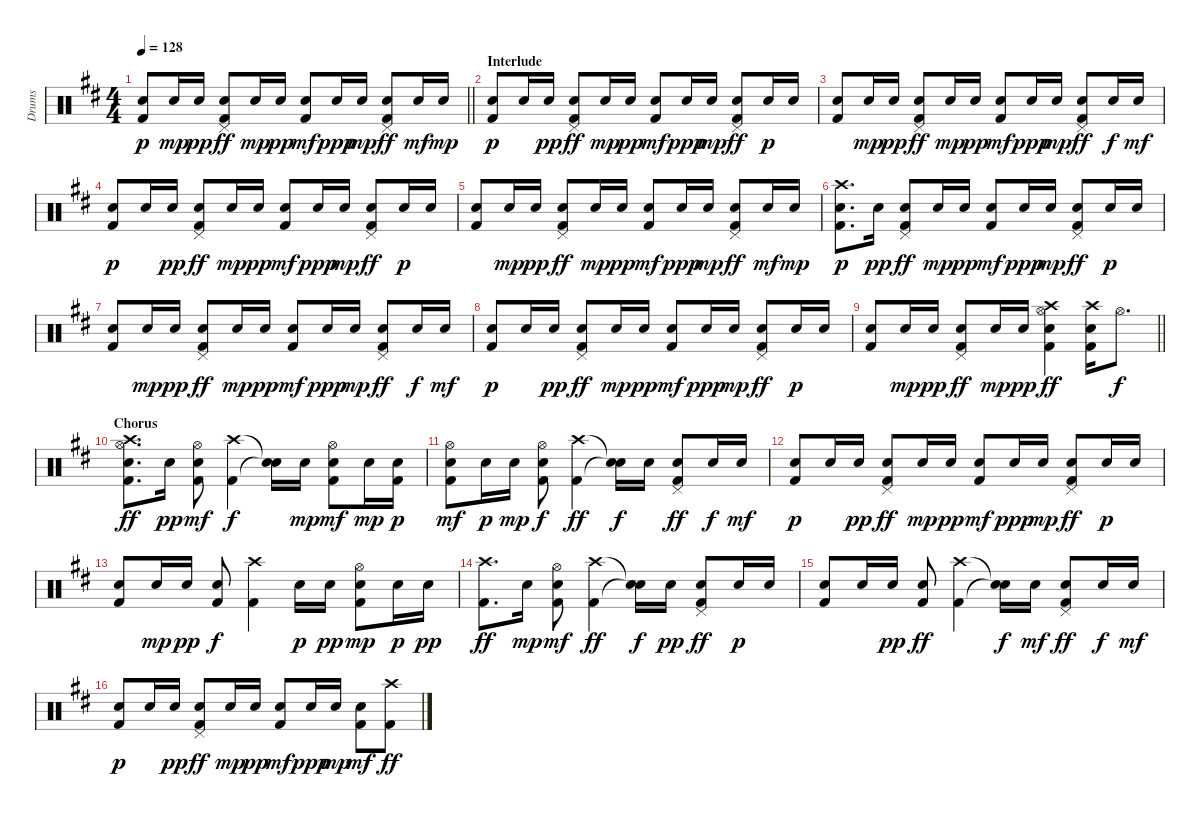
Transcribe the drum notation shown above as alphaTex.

\track ("Drums" "Drums") {instrument percussion}
\staff {score}
\articulation defaults
\ts (4 4)
\tempo 128
\clef neutral
\barLineRight lightlight
\ks d
("Kick (hit) 2" "Snare (hit) 2").8{dy p} "Snare (hit) 2".16{dy mp} "Snare (hit) 2".16{dy pp} ("Kick (hit) 2" "Snare (hit) 2" "Pedal Hi-Hat (hit)").8{dy ff} "Snare (hit) 2".16{dy mp} "Snare (hit) 2".16{dy pp} ("Kick (hit) 2" "Snare (hit) 2").8{dy mf} "Snare (hit) 2".16{dy ppp} "Snare (hit) 2".16{dy mp} ("Kick (hit) 2" "Snare (hit) 2" "Pedal Hi-Hat (hit)").8{dy ff} "Snare (hit) 2".16{dy mf} "Snare (hit) 2".16{dy mp} |
\section ("" "Interlude")
("Kick (hit) 2" "Snare (hit) 2").8{dy p} "Snare (hit) 2".16 "Snare (hit) 2".16{dy pp} ("Kick (hit) 2" "Snare (hit) 2" "Pedal Hi-Hat (hit)").8{dy ff} "Snare (hit) 2".16{dy mp} "Snare (hit) 2".16{dy pp} ("Kick (hit) 2" "Snare (hit) 2").8{dy mf} "Snare (hit) 2".16{dy ppp} "Snare (hit) 2".16{dy mp} ("Kick (hit) 2" "Snare (hit) 2" "Pedal Hi-Hat (hit)").8{dy ff} "Snare (hit) 2".16{dy p} "Snare (hit) 2".16 |
("Kick (hit) 2" "Snare (hit) 2").8 "Snare (hit) 2".16{dy mp} "Snare (hit) 2".16{dy pp} ("Kick (hit) 2" "Snare (hit) 2" "Pedal Hi-Hat (hit)").8{dy ff} "Snare (hit) 2".16{dy mp} "Snare (hit) 2".16{dy pp} ("Kick (hit) 2" "Snare (hit) 2").8{dy mf} "Snare (hit) 2".16{dy ppp} "Snare (hit) 2".16{dy mp} ("Kick (hit) 2" "Snare (hit) 2" "Pedal Hi-Hat (hit)").8{dy ff} "Snare (hit) 2".16{dy f} "Snare (hit) 2".16{dy mf} |
("Kick (hit) 2" "Snare (hit) 2").8{dy p} "Snare (hit) 2".16 "Snare (hit) 2".16{dy pp} ("Kick (hit) 2" "Snare (hit) 2" "Pedal Hi-Hat (hit)").8{dy ff} "Snare (hit) 2".16{dy mp} "Snare (hit) 2".16{dy pp} ("Kick (hit) 2" "Snare (hit) 2").8{dy mf} "Snare (hit) 2".16{dy ppp} "Snare (hit) 2".16{dy mp} ("Kick (hit) 2" "Snare (hit) 2" "Pedal Hi-Hat (hit)").8{dy ff} "Snare (hit) 2".16{dy p} "Snare (hit) 2".16 |
("Kick (hit) 2" "Snare (hit) 2").8 "Snare (hit) 2".16{dy mp} "Snare (hit) 2".16{dy pp} ("Kick (hit) 2" "Snare (hit) 2" "Pedal Hi-Hat (hit)").8{dy ff} "Snare (hit) 2".16{dy mp} "Snare (hit) 2".16{dy pp} ("Kick (hit) 2" "Snare (hit) 2").8{dy mf} "Snare (hit) 2".16{dy ppp} "Snare (hit) 2".16{dy mp} ("Kick (hit) 2" "Snare (hit) 2" "Pedal Hi-Hat (hit)").8{dy ff} "Snare (hit) 2".16{dy mf} "Snare (hit) 2".16{dy mp} |
("Kick (hit) 2" "Snare (hit) 2" "Crash high (hit)").8{d dy p} "Snare (hit) 2".16{dy pp} ("Kick (hit) 2" "Snare (hit) 2" "Pedal Hi-Hat (hit)").8{dy ff} "Snare (hit) 2".16{dy mp} "Snare (hit) 2".16{dy pp} ("Kick (hit) 2" "Snare (hit) 2").8{dy mf} "Snare (hit) 2".16{dy ppp} "Snare (hit) 2".16{dy mp} ("Kick (hit) 2" "Snare (hit) 2" "Pedal Hi-Hat (hit)").8{dy ff} "Snare (hit) 2".16{dy p} "Snare (hit) 2".16 |
("Kick (hit) 2" "Snare (hit) 2").8 "Snare (hit) 2".16{dy mp} "Snare (hit) 2".16{dy pp} ("Kick (hit) 2" "Snare (hit) 2" "Pedal Hi-Hat (hit)").8{dy ff} "Snare (hit) 2".16{dy mp} "Snare (hit) 2".16{dy pp} ("Kick (hit) 2" "Snare (hit) 2").8{dy mf} "Snare (hit) 2".16{dy ppp} "Snare (hit) 2".16{dy mp} ("Kick (hit) 2" "Snare (hit) 2" "Pedal Hi-Hat (hit)").8{dy ff} "Snare (hit) 2".16{dy f} "Snare (hit) 2".16{dy mf} |
("Kick (hit) 2" "Snare (hit) 2").8{dy p} "Snare (hit) 2".16 "Snare (hit) 2".16{dy pp} ("Kick (hit) 2" "Snare (hit) 2" "Pedal Hi-Hat (hit)").8{dy ff} "Snare (hit) 2".16{dy mp} "Snare (hit) 2".16{dy pp} ("Kick (hit) 2" "Snare (hit) 2").8{dy mf} "Snare (hit) 2".16{dy ppp} "Snare (hit) 2".16{dy mp} ("Kick (hit) 2" "Snare (hit) 2" "Pedal Hi-Hat (hit)").8{dy ff} "Snare (hit) 2".16{dy p} "Snare (hit) 2".16 |
\barLineRight lightlight
("Kick (hit) 2" "Snare (hit) 2").8 "Snare (hit) 2".16{dy mp} "Snare (hit) 2".16{dy pp} ("Kick (hit) 2" "Snare (hit) 2" "Pedal Hi-Hat (hit)").8{dy ff} "Snare (hit) 2".16{dy mp} "Snare (hit) 2".16{dy pp} ("Kick (hit) 2" "Snare (hit) 2" "Hi-Hat (open)" "Crash high (hit)").4{dy ff} ("Kick (hit) 2" "Snare (hit) 2" "Crash high (hit)").16 "Hi-Hat (open)".8{d dy f} |
\section ("" "Chorus")
("Kick (hit) 2" "Snare (hit) 2" "Hi-Hat (open)" "Crash high (hit)").8{d dy ff} "Snare (hit) 2".16{dy pp} ("Kick (hit) 2" "Snare (hit) 2" "Hi-Hat (open)").8{dy mf} ("Kick (hit) 2" "Crash high (hit)").4{dy f} ("Snare (hit)"{t} "Snare (hit)"{t}).16 "Snare (hit) 2".16{dy mp} ("Kick (hit) 2" "Snare (hit) 2" "Hi-Hat (open)").8{dy mf} "Snare (hit) 2".16{dy mp} ("Kick (hit) 2" "Snare (hit) 2").16{dy p} |
("Kick (hit) 2" "Snare (hit) 2" "Hi-Hat (open)").8{dy mf} "Snare (hit) 2".16{dy p} "Snare (hit) 2".16{dy mp} ("Kick (hit) 2" "Snare (hit) 2" "Hi-Hat (open)").8{dy f} ("Kick (hit) 2" "Crash high (hit)").4{dy ff} ("Snare (hit)"{t} "Snare (hit)"{t}).16{dy f} "Snare (hit) 2".16 ("Kick (hit) 2" "Snare (hit) 2" "Pedal Hi-Hat (hit)").8{dy ff} "Snare (hit) 2".16{dy f} "Snare (hit) 2".16{dy mf} |
("Kick (hit) 2" "Snare (hit) 2").8{dy p} "Snare (hit) 2".16 "Snare (hit) 2".16{dy pp} ("Kick (hit) 2" "Snare (hit) 2" "Pedal Hi-Hat (hit)").8{dy ff} "Snare (hit) 2".16{dy mp} "Snare (hit) 2".16{dy pp} ("Kick (hit) 2" "Snare (hit) 2").8{dy mf} "Snare (hit) 2".16{dy ppp} "Snare (hit) 2".16{dy mp} ("Kick (hit) 2" "Snare (hit) 2" "Pedal Hi-Hat (hit)").8{dy ff} "Snare (hit) 2".16{dy p} "Snare (hit) 2".16 |
("Kick (hit) 2" "Snare (hit) 2").8 "Snare (hit) 2".16{dy mp} "Snare (hit) 2".16{dy pp} ("Kick (hit) 2" "Snare (hit) 2").8{dy f} ("Kick (hit) 2" "Crash high (hit)").4 "Snare (hit) 2".16{dy p} "Snare (hit) 2".16{dy pp} ("Kick (hit) 2" "Snare (hit) 2" "Hi-Hat (open)").8{dy mp} "Snare (hit) 2".16{dy p} "Snare (hit) 2".16{dy pp} |
("Kick (hit) 2" "Crash high (hit)").8{d dy ff} "Snare (hit) 2".16{dy mp} ("Kick (hit) 2" "Snare (hit) 2" "Hi-Hat (open)").8{dy mf} ("Kick (hit) 2" "Crash high (hit)").4{dy ff} ("Snare (hit)"{t} "Snare (hit)"{t}).16{dy f} "Snare (hit) 2".16{dy pp} ("Kick (hit) 2" "Snare (hit) 2" "Pedal Hi-Hat (hit)").8{dy ff} "Snare (hit) 2".16{dy p} "Snare (hit) 2".16 |
("Kick (hit) 2" "Snare (hit) 2").8 "Snare (hit) 2".16 "Snare (hit) 2".16{dy pp} ("Kick (hit) 2" "Snare (hit) 2").8{dy ff} ("Kick (hit) 2" "Crash high (hit)").4 ("Snare (hit)"{t} "Snare (hit)"{t}).16{dy f} "Snare (hit) 2".16{dy mf} ("Kick (hit) 2" "Snare (hit) 2" "Pedal Hi-Hat (hit)").8{dy ff} "Snare (hit) 2".16{dy f} "Snare (hit) 2".16{dy mf} |
("Kick (hit) 2" "Snare (hit) 2").8{dy p} "Snare (hit) 2".16 "Snare (hit) 2".16{dy pp} ("Kick (hit) 2" "Snare (hit) 2" "Pedal Hi-Hat (hit)").8{dy ff} "Snare (hit) 2".16{dy mp} "Snare (hit) 2".16{dy pp} ("Kick (hit) 2" "Snare (hit) 2").8{dy mf} "Snare (hit) 2".16{dy ppp} "Snare (hit) 2".16{dy mp} ("Kick (hit) 2" "Snare (hit) 2").8{dy mf} ("Kick (hit) 2" "Crash high (hit)").8{dy ff}
